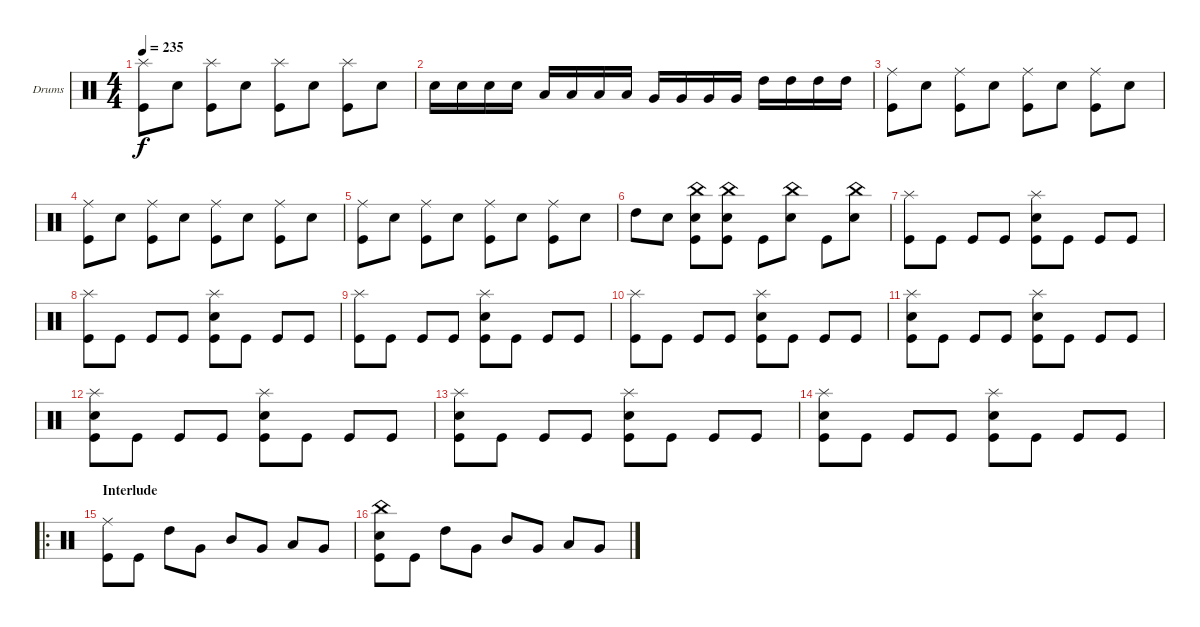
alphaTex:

\defaultSystemsLayout 4
\bracketExtendMode groupsimilarinstruments
\firstSystemTrackNameOrientation horizontal
\otherSystemsTrackNameOrientation horizontal
\track ("Drumkit" "Drums") {instrument percussion}
\staff {score}
\articulation defaults
\ts (4 4)
\tempo 235
\clef neutral
\ks c
("Splash (hit)" "Kick (hit)").8{dy f} "Snare (hit) 2".8 ("Splash (hit)" "Kick (hit)").8 "Snare (hit) 2".8 ("Splash (hit)" "Kick (hit)").8 "Snare (hit) 2".8 ("Splash (hit)" "Kick (hit)").8 "Snare (hit) 2".8 |
"Snare (hit) 2".16 "Snare (hit) 2".16 "Snare (hit) 2".16 "Snare (hit) 2".16 "Low Tom (hit)".16 "Low Tom (hit)".16 "Low Tom (hit)".16 "Low Tom (hit)".16 "Very Low Tom (hit)".16 "Very Low Tom (hit)".16 "Very Low Tom (hit)".16 "Very Low Tom (hit)".16 "High Tom (hit)".16 "High Tom (hit)".16 "High Tom (hit)".16 "High Tom (hit)".16 |
("Kick (hit)" "Ride (middle)").8 "Snare (hit) 2".8 ("Kick (hit)" "Ride (middle)").8 "Snare (hit) 2".8 ("Kick (hit)" "Ride (middle)").8 "Snare (hit) 2".8 ("Kick (hit)" "Ride (middle)").8 "Snare (hit) 2".8 |
("Kick (hit)" "Ride (middle)").8 "Snare (hit) 2".8 ("Kick (hit)" "Ride (middle)").8 "Snare (hit) 2".8 ("Kick (hit)" "Ride (middle)").8 "Snare (hit) 2".8 ("Kick (hit)" "Ride (middle)").8 "Snare (hit) 2".8 |
("Kick (hit)" "Ride (middle)").8 "Snare (hit) 2".8 ("Kick (hit)" "Ride (middle)").8 "Snare (hit) 2".8 ("Kick (hit)" "Ride (middle)").8 "Snare (hit) 2".8 ("Kick (hit)" "Ride (middle)").8 "Snare (hit) 2".8 |
"High Tom (hit)".8 "Snare (hit) 2".8 ("Kick (hit)" "Snare (hit) 2" "China (hit)").8 ("Kick (hit)" "Snare (hit) 2" "China (hit)").8 "Kick (hit)".8 ("Snare (hit) 2" "China (hit)").8 "Kick (hit)".8 ("Snare (hit) 2" "China (hit)").8 |
("Splash (hit)" "Kick (hit)").8 "Kick (hit)".8 "Kick (hit)".8 "Kick (hit)".8 ("Splash (hit)" "Kick (hit)" "Snare (hit) 2").8 "Kick (hit)".8 "Kick (hit)".8 "Kick (hit)".8 |
("Splash (hit)" "Kick (hit)").8 "Kick (hit)".8 "Kick (hit)".8 "Kick (hit)".8 ("Splash (hit)" "Kick (hit)" "Snare (hit) 2").8 "Kick (hit)".8 "Kick (hit)".8 "Kick (hit)".8 |
("Splash (hit)" "Kick (hit)").8 "Kick (hit)".8 "Kick (hit)".8 "Kick (hit)".8 ("Splash (hit)" "Kick (hit)" "Snare (hit) 2").8 "Kick (hit)".8 "Kick (hit)".8 "Kick (hit)".8 |
("Splash (hit)" "Kick (hit)").8 "Kick (hit)".8 "Kick (hit)".8 "Kick (hit)".8 ("Splash (hit)" "Kick (hit)" "Snare (hit) 2").8 "Kick (hit)".8 "Kick (hit)".8 "Kick (hit)".8 |
("Splash (hit)" "Kick (hit)" "Snare (hit) 2").8 "Kick (hit)".8 "Kick (hit)".8 "Kick (hit)".8 ("Splash (hit)" "Kick (hit)" "Snare (hit) 2").8 "Kick (hit)".8 "Kick (hit)".8 "Kick (hit)".8 |
("Splash (hit)" "Kick (hit)" "Snare (hit) 2").8 "Kick (hit)".8 "Kick (hit)".8 "Kick (hit)".8 ("Splash (hit)" "Kick (hit)" "Snare (hit) 2").8 "Kick (hit)".8 "Kick (hit)".8 "Kick (hit)".8 |
("Splash (hit)" "Kick (hit)" "Snare (hit) 2").8 "Kick (hit)".8 "Kick (hit)".8 "Kick (hit)".8 ("Splash (hit)" "Kick (hit)" "Snare (hit) 2").8 "Kick (hit)".8 "Kick (hit)".8 "Kick (hit)".8 |
("Splash (hit)" "Kick (hit)" "Snare (hit) 2").8 "Kick (hit)".8 "Kick (hit)".8 "Kick (hit)".8 ("Splash (hit)" "Kick (hit)" "Snare (hit) 2").8 "Kick (hit)".8 "Kick (hit)".8 "Kick (hit)".8 |
\ro
\section ("" "Interlude")
("Kick (hit)" "Ride (middle)").8 "Kick (hit)".8 "High Tom (hit)".8 "Very Low Tom (hit)".8 "Mid Tom (hit)".8 "Very Low Tom (hit)".8 "Low Tom (hit)".8 "Very Low Tom (hit)".8 |
("Kick (hit)" "China (hit)" "Snare (hit) 2").8 "Kick (hit)".8 "High Tom (hit)".8 "Very Low Tom (hit)".8 "Mid Tom (hit)".8 "Very Low Tom (hit)".8 "Low Tom (hit)".8 "Very Low Tom (hit)".8
